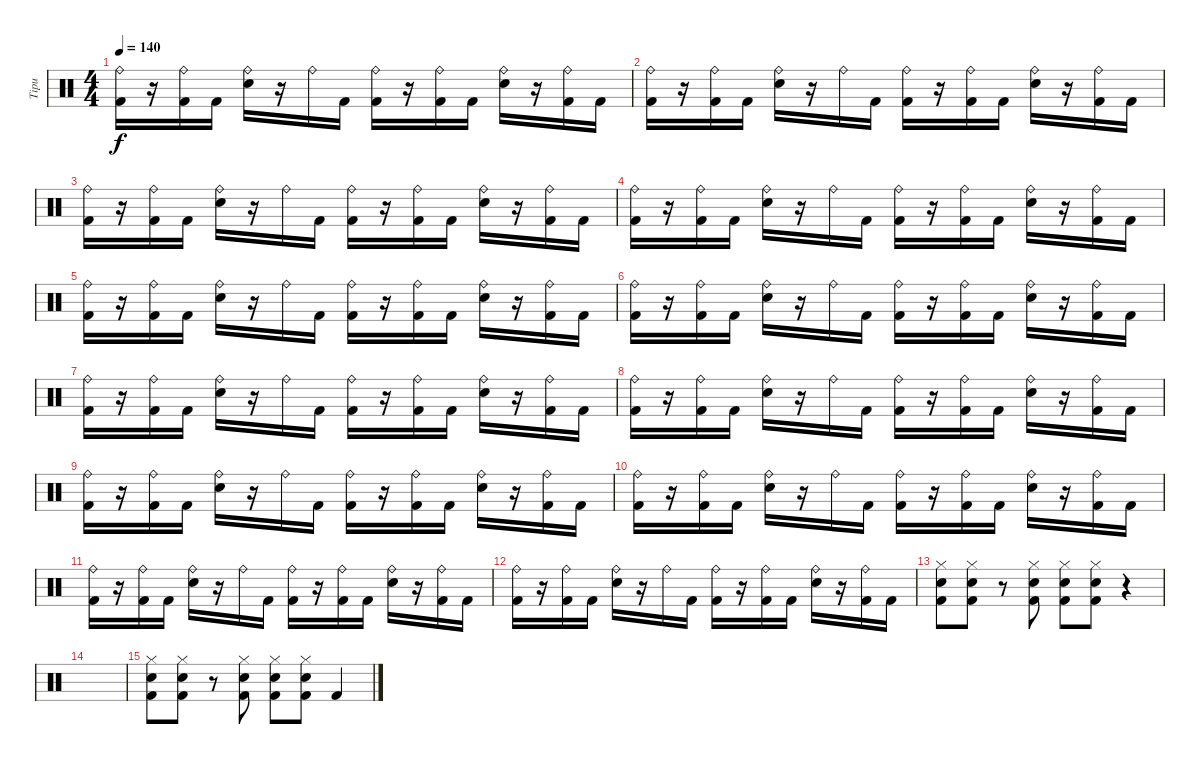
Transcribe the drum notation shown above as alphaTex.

\track ("Tipu" "Tipu") {instrument percussion}
\staff {score}
\articulation defaults
\ts (4 4)
\tempo 140
\clef neutral
\ks c
("Ride (bell)" "Kick (hit) 2").16{dy f} r.16 ("Ride (bell)" "Kick (hit) 2").16 "Kick (hit) 2".16 ("Ride (bell)" "Electric Snare (hit)").16 r.16 "Ride (bell)".16 "Kick (hit) 2".16 ("Ride (bell)" "Kick (hit) 2").16 r.16 ("Ride (bell)" "Kick (hit) 2").16 "Kick (hit) 2".16 ("Ride (bell)" "Electric Snare (hit)").16 r.16 ("Ride (bell)" "Kick (hit) 2").16 "Kick (hit) 2".16 |
("Ride (bell)" "Kick (hit) 2").16 r.16 ("Ride (bell)" "Kick (hit) 2").16 "Kick (hit) 2".16 ("Ride (bell)" "Electric Snare (hit)").16 r.16 "Ride (bell)".16 "Kick (hit) 2".16 ("Ride (bell)" "Kick (hit) 2").16 r.16 ("Ride (bell)" "Kick (hit) 2").16 "Kick (hit) 2".16 ("Ride (bell)" "Electric Snare (hit)").16 r.16 ("Ride (bell)" "Kick (hit) 2").16 "Kick (hit) 2".16 |
("Ride (bell)" "Kick (hit) 2").16 r.16 ("Ride (bell)" "Kick (hit) 2").16 "Kick (hit) 2".16 ("Ride (bell)" "Electric Snare (hit)").16 r.16 "Ride (bell)".16 "Kick (hit) 2".16 ("Ride (bell)" "Kick (hit) 2").16 r.16 ("Ride (bell)" "Kick (hit) 2").16 "Kick (hit) 2".16 ("Ride (bell)" "Electric Snare (hit)").16 r.16 ("Ride (bell)" "Kick (hit) 2").16 "Kick (hit) 2".16 |
("Ride (bell)" "Kick (hit) 2").16 r.16 ("Ride (bell)" "Kick (hit) 2").16 "Kick (hit) 2".16 ("Ride (bell)" "Electric Snare (hit)").16 r.16 "Ride (bell)".16 "Kick (hit) 2".16 ("Ride (bell)" "Kick (hit) 2").16 r.16 ("Ride (bell)" "Kick (hit) 2").16 "Kick (hit) 2".16 ("Ride (bell)" "Electric Snare (hit)").16 r.16 ("Ride (bell)" "Kick (hit) 2").16 "Kick (hit) 2".16 |
("Ride (bell)" "Kick (hit) 2").16 r.16 ("Ride (bell)" "Kick (hit) 2").16 "Kick (hit) 2".16 ("Ride (bell)" "Electric Snare (hit)").16 r.16 "Ride (bell)".16 "Kick (hit) 2".16 ("Ride (bell)" "Kick (hit) 2").16 r.16 ("Ride (bell)" "Kick (hit) 2").16 "Kick (hit) 2".16 ("Ride (bell)" "Electric Snare (hit)").16 r.16 ("Ride (bell)" "Kick (hit) 2").16 "Kick (hit) 2".16 |
("Ride (bell)" "Kick (hit) 2").16 r.16 ("Ride (bell)" "Kick (hit) 2").16 "Kick (hit) 2".16 ("Ride (bell)" "Electric Snare (hit)").16 r.16 "Ride (bell)".16 "Kick (hit) 2".16 ("Ride (bell)" "Kick (hit) 2").16 r.16 ("Ride (bell)" "Kick (hit) 2").16 "Kick (hit) 2".16 ("Ride (bell)" "Electric Snare (hit)").16 r.16 ("Ride (bell)" "Kick (hit) 2").16 "Kick (hit) 2".16 |
("Ride (bell)" "Kick (hit) 2").16 r.16 ("Ride (bell)" "Kick (hit) 2").16 "Kick (hit) 2".16 ("Ride (bell)" "Electric Snare (hit)").16 r.16 "Ride (bell)".16 "Kick (hit) 2".16 ("Ride (bell)" "Kick (hit) 2").16 r.16 ("Ride (bell)" "Kick (hit) 2").16 "Kick (hit) 2".16 ("Ride (bell)" "Electric Snare (hit)").16 r.16 ("Ride (bell)" "Kick (hit) 2").16 "Kick (hit) 2".16 |
("Ride (bell)" "Kick (hit) 2").16 r.16 ("Ride (bell)" "Kick (hit) 2").16 "Kick (hit) 2".16 ("Ride (bell)" "Electric Snare (hit)").16 r.16 "Ride (bell)".16 "Kick (hit) 2".16 ("Ride (bell)" "Kick (hit) 2").16 r.16 ("Ride (bell)" "Kick (hit) 2").16 "Kick (hit) 2".16 ("Ride (bell)" "Electric Snare (hit)").16 r.16 ("Ride (bell)" "Kick (hit) 2").16 "Kick (hit) 2".16 |
("Ride (bell)" "Kick (hit) 2").16 r.16 ("Ride (bell)" "Kick (hit) 2").16 "Kick (hit) 2".16 ("Ride (bell)" "Electric Snare (hit)").16 r.16 "Ride (bell)".16 "Kick (hit) 2".16 ("Ride (bell)" "Kick (hit) 2").16 r.16 ("Ride (bell)" "Kick (hit) 2").16 "Kick (hit) 2".16 ("Ride (bell)" "Electric Snare (hit)").16 r.16 ("Ride (bell)" "Kick (hit) 2").16 "Kick (hit) 2".16 |
("Ride (bell)" "Kick (hit) 2").16 r.16 ("Ride (bell)" "Kick (hit) 2").16 "Kick (hit) 2".16 ("Ride (bell)" "Electric Snare (hit)").16 r.16 "Ride (bell)".16 "Kick (hit) 2".16 ("Ride (bell)" "Kick (hit) 2").16 r.16 ("Ride (bell)" "Kick (hit) 2").16 "Kick (hit) 2".16 ("Ride (bell)" "Electric Snare (hit)").16 r.16 ("Ride (bell)" "Kick (hit) 2").16 "Kick (hit) 2".16 |
("Ride (bell)" "Kick (hit) 2").16 r.16 ("Ride (bell)" "Kick (hit) 2").16 "Kick (hit) 2".16 ("Ride (bell)" "Electric Snare (hit)").16 r.16 "Ride (bell)".16 "Kick (hit) 2".16 ("Ride (bell)" "Kick (hit) 2").16 r.16 ("Ride (bell)" "Kick (hit) 2").16 "Kick (hit) 2".16 ("Ride (bell)" "Electric Snare (hit)").16 r.16 ("Ride (bell)" "Kick (hit) 2").16 "Kick (hit) 2".16 |
("Ride (bell)" "Kick (hit) 2").16 r.16 ("Ride (bell)" "Kick (hit) 2").16 "Kick (hit) 2".16 ("Ride (bell)" "Electric Snare (hit)").16 r.16 "Ride (bell)".16 "Kick (hit) 2".16 ("Ride (bell)" "Kick (hit) 2").16 r.16 ("Ride (bell)" "Kick (hit) 2").16 "Kick (hit) 2".16 ("Ride (bell)" "Electric Snare (hit)").16 r.16 ("Ride (bell)" "Kick (hit) 2").16 "Kick (hit) 2".16 |
("Hi-Hat (closed)" "Kick (hit) 2" "Electric Snare (hit)").8 ("Hi-Hat (closed)" "Kick (hit) 2" "Electric Snare (hit)").8 r.8 ("Hi-Hat (closed)" "Kick (hit) 2" "Electric Snare (hit)").8 ("Hi-Hat (closed)" "Kick (hit) 2" "Electric Snare (hit)").8 ("Hi-Hat (closed)" "Kick (hit) 2" "Electric Snare (hit)").8 r.4 |
|
("Hi-Hat (closed)" "Kick (hit) 2" "Electric Snare (hit)").8 ("Hi-Hat (closed)" "Kick (hit) 2" "Electric Snare (hit)").8 r.8 ("Hi-Hat (closed)" "Kick (hit) 2" "Electric Snare (hit)").8 ("Hi-Hat (closed)" "Kick (hit) 2" "Electric Snare (hit)").8 ("Hi-Hat (closed)" "Kick (hit) 2" "Electric Snare (hit)").8 "Kick (hit) 2".4
